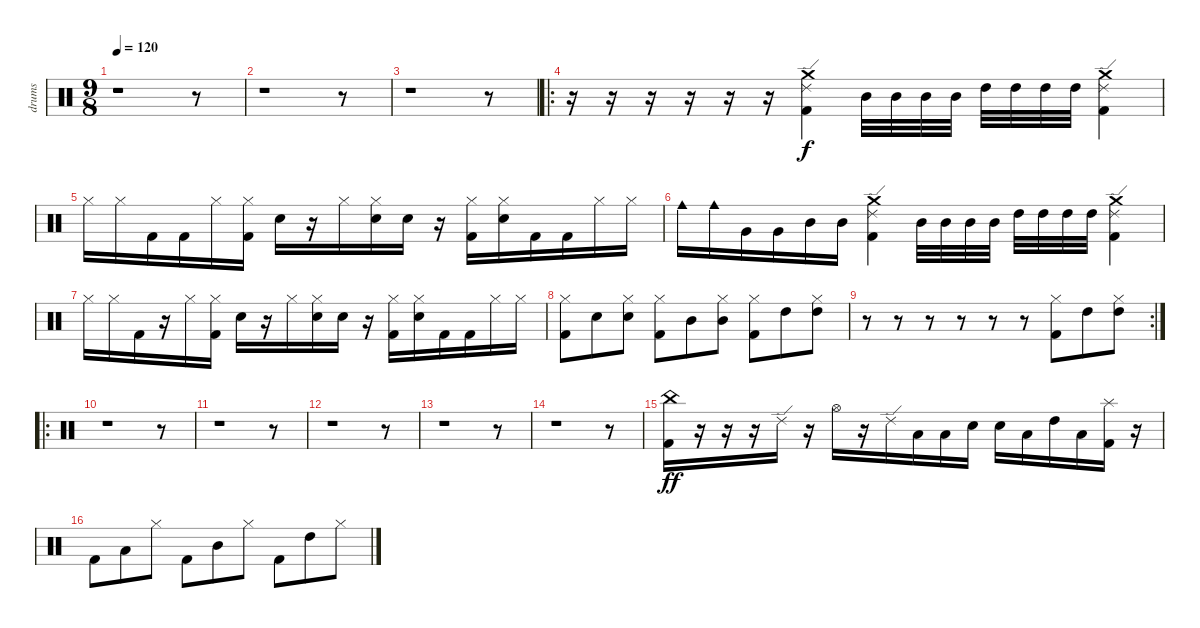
\track ("drums" "drums") {instrument percussion}
\staff {score}
\articulation defaults
\ts (9 8)
\tempo 120
\clef neutral
\ks c
r.1{dy f} r.8 |
r.1 r.8 |
r.1 r.8 |
\ro
r.16 r.16 r.16 r.16 r.16 r.16 ("Kick (hit) 2" "Ride (edge) 2" "Crash medium (hit)").4 "Mid Tom (hit)".32 "Mid Tom (hit)".32 "Mid Tom (hit)".32 "Mid Tom (hit)".32 "High Tom (hit)".32 "High Tom (hit)".32 "High Tom (hit)".32 "High Tom (hit)".32 ("Kick (hit) 2" "Ride (edge) 2" "Crash medium (hit)").4 |
"Hi-Hat (closed)".16 "Hi-Hat (closed)".16 "Kick (hit) 2".16 "Kick (hit) 2".16 "Hi-Hat (closed)".16 ("Kick (hit) 2" "Hi-Hat (closed)").16 "Snare (hit) 2".16 r.16 "Hi-Hat (closed)".16 ("Snare (hit) 2" "Hi-Hat (closed)").16 "Snare (hit) 2".16 r.16 ("Kick (hit) 2" "Hi-Hat (closed)").16 ("Snare (hit) 2" "Hi-Hat (closed)").16 "Kick (hit) 2".16 "Kick (hit) 2".16 "Hi-Hat (closed)".16 "Hi-Hat (closed)".16 |
"Cowbell medium (hit)".16 "Cowbell medium (hit)".16 "Very Low Tom (hit)".16 "Very Low Tom (hit)".16 "Mid Tom (hit)".16 "Mid Tom (hit)".16 ("Kick (hit) 2" "Ride (edge) 2" "Crash medium (hit)").4 "Mid Tom (hit)".32 "Mid Tom (hit)".32 "Mid Tom (hit)".32 "Mid Tom (hit)".32 "High Tom (hit)".32 "High Tom (hit)".32 "High Tom (hit)".32 "High Tom (hit)".32 ("Kick (hit) 2" "Ride (edge) 2" "Crash medium (hit)").4 |
"Hi-Hat (closed)".16 "Hi-Hat (closed)".16 "Kick (hit) 2".16 r.16 "Hi-Hat (closed)".16 ("Kick (hit) 2" "Hi-Hat (closed)").16 "Snare (hit) 2".16 r.16 "Hi-Hat (closed)".16 ("Snare (hit) 2" "Hi-Hat (closed)").16 "Snare (hit) 2".16 r.16 ("Kick (hit) 2" "Hi-Hat (closed)").16 ("Snare (hit) 2" "Hi-Hat (closed)").16 "Kick (hit) 2".16 "Kick (hit) 2".16 "Hi-Hat (closed)".16 "Hi-Hat (closed)".16 |
("Hi-Hat (closed)" "Kick (hit) 2").8 "Snare (hit) 2".8 ("Hi-Hat (closed)" "Snare (hit) 2").8 ("Hi-Hat (closed)" "Kick (hit) 2").8 "Mid Tom (hit)".8 ("Hi-Hat (closed)" "Mid Tom (hit)").8 ("Hi-Hat (closed)" "Kick (hit) 2").8 "High Tom (hit)".8 ("Hi-Hat (closed)" "High Tom (hit)").8 |
\rc 2
r.8 r.8 r.8 r.8 r.8 r.8 ("Hi-Hat (closed)" "Kick (hit) 2").8 "High Tom (hit)".8 ("Hi-Hat (closed)" "High Tom (hit)").8 |
\ro
r.1 r.8 |
r.1 r.8 |
r.1 r.8 |
r.1 r.8 |
r.1 r.8 |
("China (hit)" "Kick (hit) 2").16{dy ff} r.16 r.16 r.16 "Ride (edge) 2".16 r.16 "Hi-Hat (open)".16 r.16 "Ride (edge) 2".16 "Low Tom (hit)".16 "Low Tom (hit)".16 "Snare (hit) 2".16 "Snare (hit) 2".16 "Low Tom (hit)".16 "High Tom (hit)".16 "Low Tom (hit)".16 ("Kick (hit) 2" "Splash (hit)").16 r.16 |
"Kick (hit) 2".8 "Low Tom (hit)".8 "Hi-Hat (closed)".8 "Kick (hit) 2".8 "Mid Tom (hit)".8 "Hi-Hat (closed)".8 "Kick (hit) 2".8 "High Tom (hit)".8 "Hi-Hat (closed)".8
